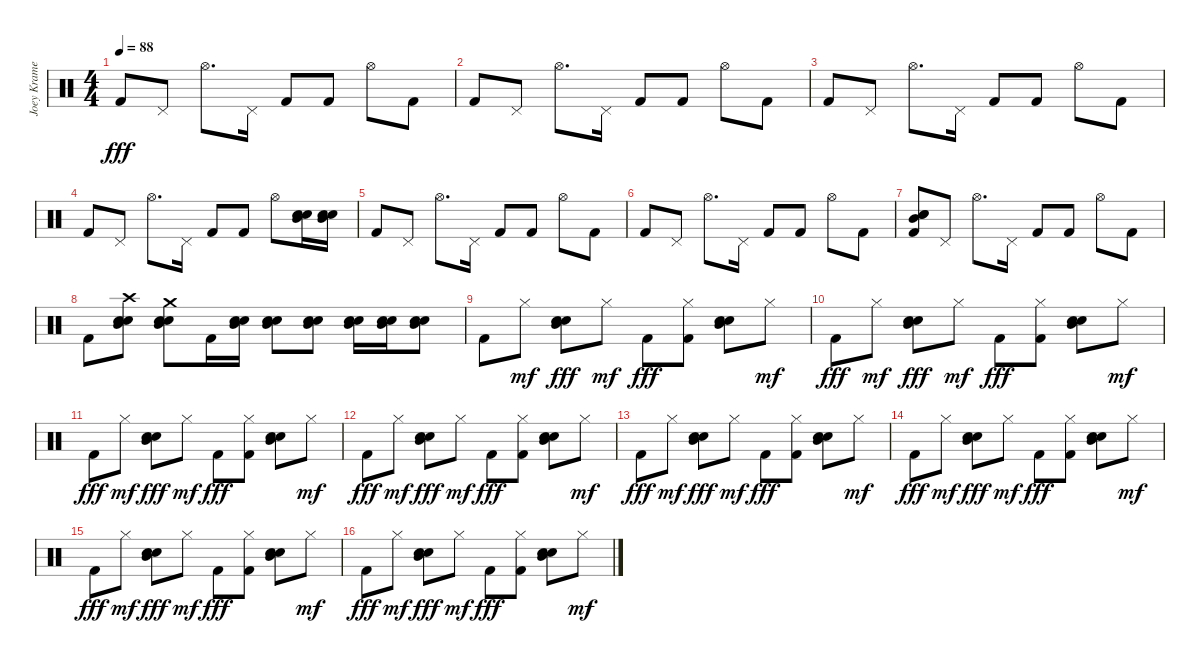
\track ("Joey Kramer" "Joey Krame") {instrument percussion}
\staff {score}
\articulation defaults
\ts (4 4)
\tempo 88
\clef neutral
\ks c "Kick (hit) 2".8{dy fff} "Pedal Hi-Hat (hit)".8 "Hi-Hat (open)".8{d} "Pedal Hi-Hat (hit)".16 "Kick (hit) 2".8 "Kick (hit) 2".8 "Hi-Hat (open)".8 "Kick (hit) 2".8
|
"Kick (hit) 2".8 "Pedal Hi-Hat (hit)".8 "Hi-Hat (open)".8{d} "Pedal Hi-Hat (hit)".16 "Kick (hit) 2".8 "Kick (hit) 2".8 "Hi-Hat (open)".8 "Kick (hit) 2".8 |
"Kick (hit) 2".8 "Pedal Hi-Hat (hit)".8 "Hi-Hat (open)".8{d} "Pedal Hi-Hat (hit)".16 "Kick (hit) 2".8 "Kick (hit) 2".8 "Hi-Hat (open)".8 "Kick (hit) 2".8 |
"Kick (hit) 2".8 "Pedal Hi-Hat (hit)".8 "Hi-Hat (open)".8{d} "Pedal Hi-Hat (hit)".16 "Kick (hit) 2".8 "Kick (hit) 2".8 "Hi-Hat (open)".8 ("Mid Tom (hit)" "Electric Snare (hit)" "Snare (hit) 2").16 ("Mid Tom (hit)" "Electric Snare (hit)" "Snare (hit) 2").16 |
"Kick (hit) 2".8 "Pedal Hi-Hat (hit)".8 "Hi-Hat (open)".8{d} "Pedal Hi-Hat (hit)".16 "Kick (hit) 2".8 "Kick (hit) 2".8 "Hi-Hat (open)".8 "Kick (hit) 2".8 |
"Kick (hit) 2".8 "Pedal Hi-Hat (hit)".8 "Hi-Hat (open)".8{d} "Pedal Hi-Hat (hit)".16 "Kick (hit) 2".8 "Kick (hit) 2".8 "Hi-Hat (open)".8 "Kick (hit) 2".8 |
("Mid Tom (hit)" "Electric Snare (hit)" "Snare (hit) 2" "Kick (hit) 2").8 "Pedal Hi-Hat (hit)".8 "Hi-Hat (open)".8{d} "Pedal Hi-Hat (hit)".16 "Kick (hit) 2".8 "Kick (hit) 2".8 "Hi-Hat (open)".8 "Kick (hit) 2".8 |
"Kick (hit) 2".8 ("Crash high (hit)" "Mid Tom (hit)" "Electric Snare (hit)" "Snare (hit) 2").8 ("Crash medium (hit)" "Mid Tom (hit)" "Electric Snare (hit)" "Snare (hit) 2").8 "Kick (hit) 2".16 ("Mid Tom (hit)" "Electric Snare (hit)" "Snare (hit) 2").16 ("Mid Tom (hit)" "Electric Snare (hit)" "Snare (hit) 2").8 ("Mid Tom (hit)" "Electric Snare (hit)" "Snare (hit) 2").8 ("Mid Tom (hit)" "Electric Snare (hit)" "Snare (hit) 2").16 ("Mid Tom (hit)" "Electric Snare (hit)" "Snare (hit) 2").16 ("Mid Tom (hit)" "Electric Snare (hit)" "Snare (hit) 2").8 |
"Kick (hit) 2".8 "Hi-Hat (closed)".8{dy mf} ("Snare (hit) 2" "Electric Snare (hit)" "Mid Tom (hit)").8{dy fff} "Hi-Hat (closed)".8{dy mf} "Kick (hit) 2".8{dy fff} ("Hi-Hat (closed)" "Kick (hit) 2").8 ("Snare (hit) 2" "Electric Snare (hit)" "Mid Tom (hit)").8 "Hi-Hat (closed)".8{dy mf} |
"Kick (hit) 2".8{dy fff} "Hi-Hat (closed)".8{dy mf} ("Snare (hit) 2" "Electric Snare (hit)" "Mid Tom (hit)").8{dy fff} "Hi-Hat (closed)".8{dy mf} "Kick (hit) 2".8{dy fff} ("Hi-Hat (closed)" "Kick (hit) 2").8 ("Snare (hit) 2" "Electric Snare (hit)" "Mid Tom (hit)").8 "Hi-Hat (closed)".8{dy mf} |
"Kick (hit) 2".8{dy fff} "Hi-Hat (closed)".8{dy mf} ("Snare (hit) 2" "Electric Snare (hit)" "Mid Tom (hit)").8{dy fff} "Hi-Hat (closed)".8{dy mf} "Kick (hit) 2".8{dy fff} ("Hi-Hat (closed)" "Kick (hit) 2").8 ("Snare (hit) 2" "Electric Snare (hit)" "Mid Tom (hit)").8 "Hi-Hat (closed)".8{dy mf} |
"Kick (hit) 2".8{dy fff} "Hi-Hat (closed)".8{dy mf} ("Snare (hit) 2" "Electric Snare (hit)" "Mid Tom (hit)").8{dy fff} "Hi-Hat (closed)".8{dy mf} "Kick (hit) 2".8{dy fff} ("Hi-Hat (closed)" "Kick (hit) 2").8 ("Snare (hit) 2" "Electric Snare (hit)" "Mid Tom (hit)").8 "Hi-Hat (closed)".8{dy mf} |
"Kick (hit) 2".8{dy fff} "Hi-Hat (closed)".8{dy mf} ("Snare (hit) 2" "Electric Snare (hit)" "Mid Tom (hit)").8{dy fff} "Hi-Hat (closed)".8{dy mf} "Kick (hit) 2".8{dy fff} ("Hi-Hat (closed)" "Kick (hit) 2").8 ("Snare (hit) 2" "Electric Snare (hit)" "Mid Tom (hit)").8 "Hi-Hat (closed)".8{dy mf} |
"Kick (hit) 2".8{dy fff} "Hi-Hat (closed)".8{dy mf} ("Snare (hit) 2" "Electric Snare (hit)" "Mid Tom (hit)").8{dy fff} "Hi-Hat (closed)".8{dy mf} "Kick (hit) 2".8{dy fff} ("Hi-Hat (closed)" "Kick (hit) 2").8 ("Snare (hit) 2" "Electric Snare (hit)" "Mid Tom (hit)").8 "Hi-Hat (closed)".8{dy mf} |
"Kick (hit) 2".8{dy fff} "Hi-Hat (closed)".8{dy mf} ("Snare (hit) 2" "Electric Snare (hit)" "Mid Tom (hit)").8{dy fff} "Hi-Hat (closed)".8{dy mf} "Kick (hit) 2".8{dy fff} ("Hi-Hat (closed)" "Kick (hit) 2").8 ("Snare (hit) 2" "Electric Snare (hit)" "Mid Tom (hit)").8 "Hi-Hat (closed)".8{dy mf} |
"Kick (hit) 2".8{dy fff} "Hi-Hat (closed)".8{dy mf} ("Snare (hit) 2" "Electric Snare (hit)" "Mid Tom (hit)").8{dy fff} "Hi-Hat (closed)".8{dy mf} "Kick (hit) 2".8{dy fff} ("Hi-Hat (closed)" "Kick (hit) 2").8 ("Snare (hit) 2" "Electric Snare (hit)" "Mid Tom (hit)").8 "Hi-Hat (closed)".8{dy mf}
